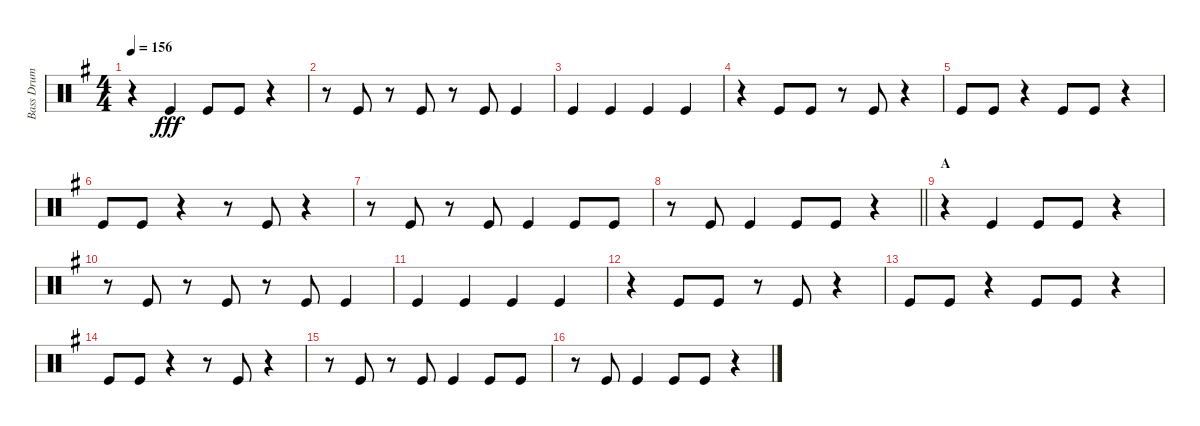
\track ("Bass Drum" "Bass Drum") {instrument percussion}
\staff {score}
\articulation defaults
\ts (4 4)
\tempo 156
\clef neutral
\ks g
r.4{dy fff} "Kick (hit)".4 "Kick (hit)".8 "Kick (hit)".8 r.4 |
r.8 "Kick (hit)".8 r.8 "Kick (hit)".8 r.8 "Kick (hit)".8 "Kick (hit)".4 |
"Kick (hit)".4 "Kick (hit)".4 "Kick (hit)".4 "Kick (hit)".4 |
r.4 "Kick (hit)".8 "Kick (hit)".8 r.8 "Kick (hit)".8 r.4 |
"Kick (hit)".8 "Kick (hit)".8 r.4 "Kick (hit)".8 "Kick (hit)".8 r.4 |
"Kick (hit)".8 "Kick (hit)".8 r.4 r.8 "Kick (hit)".8 r.4 |
r.8 "Kick (hit)".8 r.8 "Kick (hit)".8 "Kick (hit)".4 "Kick (hit)".8 "Kick (hit)".8 |
\barLineRight lightlight
r.8 "Kick (hit)".8 "Kick (hit)".4 "Kick (hit)".8 "Kick (hit)".8 r.4 |
\section ("" "A")
r.4 "Kick (hit)".4 "Kick (hit)".8 "Kick (hit)".8 r.4 |
r.8 "Kick (hit)".8 r.8 "Kick (hit)".8 r.8 "Kick (hit)".8 "Kick (hit)".4 |
"Kick (hit)".4 "Kick (hit)".4 "Kick (hit)".4 "Kick (hit)".4 |
r.4 "Kick (hit)".8 "Kick (hit)".8 r.8 "Kick (hit)".8 r.4 |
"Kick (hit)".8 "Kick (hit)".8 r.4 "Kick (hit)".8 "Kick (hit)".8 r.4 |
"Kick (hit)".8 "Kick (hit)".8 r.4 r.8 "Kick (hit)".8 r.4 |
r.8 "Kick (hit)".8 r.8 "Kick (hit)".8 "Kick (hit)".4 "Kick (hit)".8 "Kick (hit)".8 |
r.8 "Kick (hit)".8 "Kick (hit)".4 "Kick (hit)".8 "Kick (hit)".8 r.4
